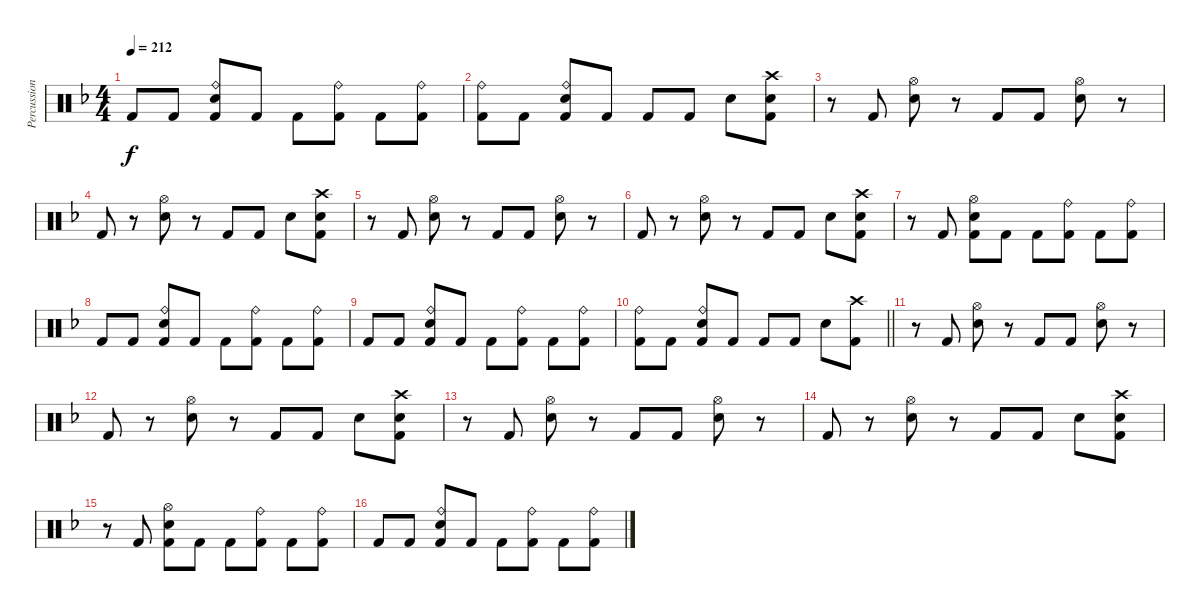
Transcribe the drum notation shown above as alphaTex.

\track ("Percussion" "Percussion") {instrument percussion}
\staff {score}
\articulation defaults
\ts (4 4)
\tempo 212
\clef neutral
\ks dminor "Kick (hit) 2".8{dy f} "Kick (hit) 2".8
("Ride (bell)" "Electric Snare (hit)" "Kick (hit) 2").8 "Kick (hit) 2".8 "Kick (hit) 2".8 ("Ride (bell)" "Kick (hit) 2").8 "Kick (hit) 2".8 ("Ride (bell)" "Kick (hit) 2").8 |
("Ride (bell)" "Kick (hit) 2").8 "Kick (hit) 2".8 ("Ride (bell)" "Electric Snare (hit)" "Kick (hit) 2").8 "Kick (hit) 2".8 "Kick (hit) 2".8 "Kick (hit) 2".8 "Electric Snare (hit)".8 ("Crash high (hit)" "Electric Snare (hit)" "Kick (hit) 2").8 |
r.8 "Kick (hit) 2".8 ("Hi-Hat (open)" "Electric Snare (hit)").8 r.8 "Kick (hit) 2".8 "Kick (hit) 2".8 ("Hi-Hat (open)" "Electric Snare (hit)").8 r.8 |
"Kick (hit) 2".8 r.8 ("Hi-Hat (open)" "Electric Snare (hit)").8 r.8 "Kick (hit) 2".8 "Kick (hit) 2".8 "Electric Snare (hit)".8 ("Crash high (hit)" "Electric Snare (hit)" "Kick (hit) 2").8 |
r.8 "Kick (hit) 2".8 ("Hi-Hat (open)" "Electric Snare (hit)").8 r.8 "Kick (hit) 2".8 "Kick (hit) 2".8 ("Hi-Hat (open)" "Electric Snare (hit)").8 r.8 |
"Kick (hit) 2".8 r.8 ("Hi-Hat (open)" "Electric Snare (hit)").8 r.8 "Kick (hit) 2".8 "Kick (hit) 2".8 "Electric Snare (hit)".8 ("Crash high (hit)" "Electric Snare (hit)" "Kick (hit) 2").8 |
r.8 "Kick (hit) 2".8 ("Hi-Hat (open)" "Electric Snare (hit)" "Kick (hit) 2").8 "Kick (hit) 2".8 "Kick (hit) 2".8 ("Ride (bell)" "Kick (hit) 2").8 "Kick (hit) 2".8 ("Ride (bell)" "Kick (hit) 2").8 |
"Kick (hit) 2".8 "Kick (hit) 2".8 ("Ride (bell)" "Electric Snare (hit)" "Kick (hit) 2").8 "Kick (hit) 2".8 "Kick (hit) 2".8 ("Ride (bell)" "Kick (hit) 2").8 "Kick (hit) 2".8 ("Ride (bell)" "Kick (hit) 2").8 |
"Kick (hit) 2".8 "Kick (hit) 2".8 ("Ride (bell)" "Electric Snare (hit)" "Kick (hit) 2").8 "Kick (hit) 2".8 "Kick (hit) 2".8 ("Ride (bell)" "Kick (hit) 2").8 "Kick (hit) 2".8 ("Ride (bell)" "Kick (hit) 2").8 |
\barLineRight lightlight
("Ride (bell)" "Kick (hit) 2").8 "Kick (hit) 2".8 ("Ride (bell)" "Electric Snare (hit)" "Kick (hit) 2").8 "Kick (hit) 2".8 "Kick (hit) 2".8 "Kick (hit) 2".8 "Electric Snare (hit)".8 ("Crash high (hit)" "Kick (hit) 2").8 |
r.8 "Kick (hit) 2".8 ("Hi-Hat (open)" "Electric Snare (hit)").8 r.8 "Kick (hit) 2".8 "Kick (hit) 2".8 ("Hi-Hat (open)" "Electric Snare (hit)").8 r.8 |
"Kick (hit) 2".8 r.8 ("Hi-Hat (open)" "Electric Snare (hit)").8 r.8 "Kick (hit) 2".8 "Kick (hit) 2".8 "Electric Snare (hit)".8 ("Crash high (hit)" "Electric Snare (hit)" "Kick (hit) 2").8 |
r.8 "Kick (hit) 2".8 ("Hi-Hat (open)" "Electric Snare (hit)").8 r.8 "Kick (hit) 2".8 "Kick (hit) 2".8 ("Hi-Hat (open)" "Electric Snare (hit)").8 r.8 |
"Kick (hit) 2".8 r.8 ("Hi-Hat (open)" "Electric Snare (hit)").8 r.8 "Kick (hit) 2".8 "Kick (hit) 2".8 "Electric Snare (hit)".8 ("Crash high (hit)" "Electric Snare (hit)" "Kick (hit) 2").8 |
r.8 "Kick (hit) 2".8 ("Hi-Hat (open)" "Electric Snare (hit)" "Kick (hit) 2").8 "Kick (hit) 2".8 "Kick (hit) 2".8 ("Ride (bell)" "Kick (hit) 2").8 "Kick (hit) 2".8 ("Ride (bell)" "Kick (hit) 2").8 |
"Kick (hit) 2".8 "Kick (hit) 2".8 ("Ride (bell)" "Electric Snare (hit)" "Kick (hit) 2").8 "Kick (hit) 2".8 "Kick (hit) 2".8 ("Ride (bell)" "Kick (hit) 2").8 "Kick (hit) 2".8 ("Ride (bell)" "Kick (hit) 2").8
